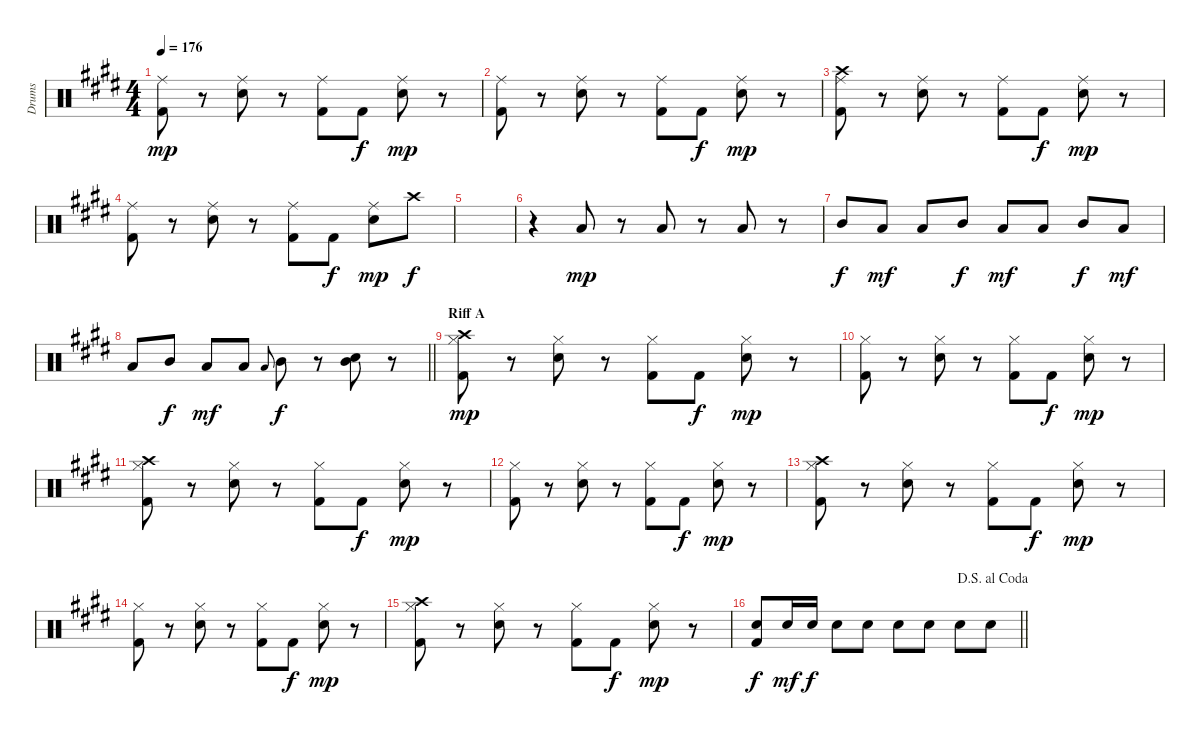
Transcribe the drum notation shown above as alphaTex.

\track ("Drums" "Drums") {instrument percussion}
\staff {score}
\articulation defaults
\ts (4 4)
\tempo 176
\clef neutral
\ks e
("Ride (middle)" "Kick (hit) 2").8{dy mp} r.8 ("Ride (middle)" "Snare (hit) 2").8 r.8 ("Ride (middle)" "Kick (hit) 2").8 "Kick (hit) 2".8{dy f} ("Ride (middle)" "Snare (hit) 2").8{dy mp} r.8 |
("Ride (middle)" "Kick (hit) 2").8 r.8 ("Ride (middle)" "Snare (hit) 2").8 r.8 ("Ride (middle)" "Kick (hit) 2").8 "Kick (hit) 2".8{dy f} ("Ride (middle)" "Snare (hit) 2").8{dy mp} r.8 |
("Crash high (hit)" "Ride (middle)" "Kick (hit) 2").8 r.8 ("Ride (middle)" "Snare (hit) 2").8 r.8 ("Ride (middle)" "Kick (hit) 2").8 "Kick (hit) 2".8{dy f} ("Ride (middle)" "Snare (hit) 2").8{dy mp} r.8 |
("Ride (middle)" "Kick (hit) 2").8 r.8 ("Ride (middle)" "Snare (hit) 2").8 r.8 ("Ride (middle)" "Kick (hit) 2").8 "Kick (hit) 2".8{dy f} ("Ride (middle)" "Snare (hit) 2").8{dy mp} "Crash high (hit)".8{dy f} |
|
r.4 "Low Tom (hit)".8{dy mp} r.8 "Low Tom (hit)".8 r.8 "Low Tom (hit)".8 r.8 |
"Mid Tom (hit)".8{dy f} "Low Tom (hit)".8{dy mf} "Low Tom (hit)".8 "Mid Tom (hit)".8{dy f} "Low Tom (hit)".8{dy mf} "Low Tom (hit)".8 "Mid Tom (hit)".8{dy f} "Low Tom (hit)".8{dy mf} |
\barLineRight lightlight "Low Tom (hit)".8 "Mid Tom (hit)".8{dy f} "Low Tom (hit)".8{dy mf} "Low Tom (hit)".8 "Low Tom (hit)".8{gr onbeat} "Mid Tom (hit)".8{dy f}
r.8 ("Snare (hit) 2" "Mid Tom (hit)").8 r.8 |
\section ("" "Riff A")
("Crash high (hit)" "Hi-Hat (closed)" "Kick (hit) 2").8{dy mp} r.8 ("Hi-Hat (closed)" "Snare (hit) 2").8 r.8 ("Hi-Hat (closed)" "Kick (hit) 2").8 "Kick (hit) 2".8{dy f} ("Hi-Hat (closed)" "Snare (hit) 2").8{dy mp} r.8 |
("Hi-Hat (closed)" "Kick (hit) 2").8 r.8 ("Hi-Hat (closed)" "Snare (hit) 2").8 r.8 ("Hi-Hat (closed)" "Kick (hit) 2").8 "Kick (hit) 2".8{dy f} ("Hi-Hat (closed)" "Snare (hit) 2").8{dy mp} r.8 |
("Crash high (hit)" "Hi-Hat (closed)" "Kick (hit) 2").8 r.8 ("Hi-Hat (closed)" "Snare (hit) 2").8 r.8 ("Hi-Hat (closed)" "Kick (hit) 2").8 "Kick (hit) 2".8{dy f} ("Hi-Hat (closed)" "Snare (hit) 2").8{dy mp} r.8 |
("Hi-Hat (closed)" "Kick (hit) 2").8 r.8 ("Hi-Hat (closed)" "Snare (hit) 2").8 r.8 ("Hi-Hat (closed)" "Kick (hit) 2").8 "Kick (hit) 2".8{dy f} ("Hi-Hat (closed)" "Snare (hit) 2").8{dy mp} r.8 |
("Crash high (hit)" "Hi-Hat (closed)" "Kick (hit) 2").8 r.8 ("Hi-Hat (closed)" "Snare (hit) 2").8 r.8 ("Hi-Hat (closed)" "Kick (hit) 2").8 "Kick (hit) 2".8{dy f} ("Hi-Hat (closed)" "Snare (hit) 2").8{dy mp} r.8 |
("Hi-Hat (closed)" "Kick (hit) 2").8 r.8 ("Hi-Hat (closed)" "Snare (hit) 2").8 r.8 ("Hi-Hat (closed)" "Kick (hit) 2").8 "Kick (hit) 2".8{dy f} ("Hi-Hat (closed)" "Snare (hit) 2").8{dy mp} r.8 |
("Crash high (hit)" "Hi-Hat (closed)" "Kick (hit) 2").8 r.8 ("Hi-Hat (closed)" "Snare (hit) 2").8 r.8 ("Hi-Hat (closed)" "Kick (hit) 2").8 "Kick (hit) 2".8{dy f} ("Hi-Hat (closed)" "Snare (hit) 2").8{dy mp} r.8 |
\jump dalsegnoalcoda
\barLineRight lightlight
("Snare (hit) 2" "Kick (hit) 2").8{dy f} "Snare (hit) 2".16{dy mf} "Snare (hit) 2".16{dy f} "Snare (hit) 2".8 "Snare (hit) 2".8 "Snare (hit) 2".8 "Snare (hit) 2".8 "Snare (hit) 2".8 "Snare (hit) 2".8
